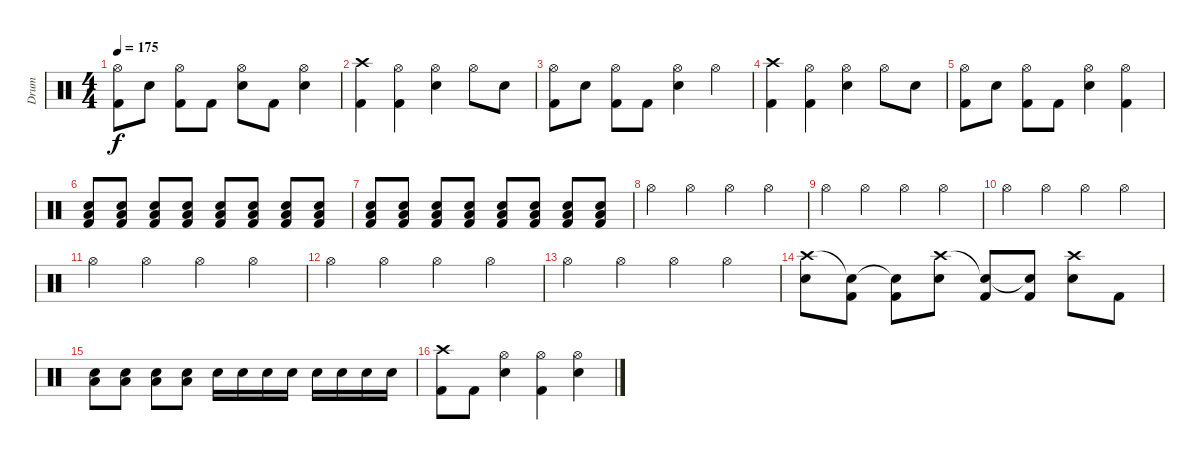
\track ("Drum" "Drum") {instrument percussion}
\staff {score}
\articulation defaults
\ts (4 4)
\tempo 175
\clef neutral
\ks c
("Hi-Hat (open)" "Kick (hit) 2").8{dy f} "Electric Snare (hit)".8 ("Hi-Hat (open)" "Kick (hit) 2").8 "Kick (hit) 2".8 ("Hi-Hat (open)" "Electric Snare (hit)").8 "Kick (hit) 2".8 ("Hi-Hat (open)" "Electric Snare (hit)").4 |
("Crash high (hit)" "Kick (hit) 2").4 ("Hi-Hat (open)" "Kick (hit) 2").4 ("Hi-Hat (open)" "Electric Snare (hit)").4 "Hi-Hat (open)".8 "Electric Snare (hit)".8 |
("Hi-Hat (open)" "Kick (hit) 2").8 "Electric Snare (hit)".8 ("Hi-Hat (open)" "Kick (hit) 2").8 "Kick (hit) 2".8 ("Hi-Hat (open)" "Electric Snare (hit)").4 "Hi-Hat (open)".4 |
("Crash high (hit)" "Kick (hit) 2").4 ("Hi-Hat (open)" "Kick (hit) 2").4 ("Hi-Hat (open)" "Electric Snare (hit)").4 "Hi-Hat (open)".8 "Electric Snare (hit)".8 |
("Hi-Hat (open)" "Kick (hit) 2").8 "Electric Snare (hit)".8 ("Hi-Hat (open)" "Kick (hit) 2").8 "Kick (hit) 2".8 ("Hi-Hat (open)" "Electric Snare (hit)").4 ("Hi-Hat (open)" "Kick (hit) 2").4 |
("Electric Snare (hit)" "Low Floor Tom (hit)" "Kick (hit) 2").8 ("Electric Snare (hit)" "Low Floor Tom (hit)" "Kick (hit) 2").8 ("Electric Snare (hit)" "Low Floor Tom (hit)" "Kick (hit) 2").8 ("Electric Snare (hit)" "Low Floor Tom (hit)" "Kick (hit) 2").8 ("Electric Snare (hit)" "Low Floor Tom (hit)" "Kick (hit) 2").8 ("Electric Snare (hit)" "Low Floor Tom (hit)" "Kick (hit) 2").8 ("Electric Snare (hit)" "Low Floor Tom (hit)" "Kick (hit) 2").8 ("Electric Snare (hit)" "Low Floor Tom (hit)" "Kick (hit) 2").8 |
("Electric Snare (hit)" "Low Floor Tom (hit)" "Kick (hit) 2").8 ("Electric Snare (hit)" "Low Floor Tom (hit)" "Kick (hit) 2").8 ("Electric Snare (hit)" "Low Floor Tom (hit)" "Kick (hit) 2").8 ("Electric Snare (hit)" "Low Floor Tom (hit)" "Kick (hit) 2").8 ("Electric Snare (hit)" "Low Floor Tom (hit)" "Kick (hit) 2").8 ("Electric Snare (hit)" "Low Floor Tom (hit)" "Kick (hit) 2").8 ("Electric Snare (hit)" "Low Floor Tom (hit)" "Kick (hit) 2").8 ("Electric Snare (hit)" "Low Floor Tom (hit)" "Kick (hit) 2").8 |
"Hi-Hat (open)".4 "Hi-Hat (open)".4 "Hi-Hat (open)".4 "Hi-Hat (open)".4 |
"Hi-Hat (open)".4 "Hi-Hat (open)".4 "Hi-Hat (open)".4 "Hi-Hat (open)".4 |
"Hi-Hat (open)".4 "Hi-Hat (open)".4 "Hi-Hat (open)".4 "Hi-Hat (open)".4 |
"Hi-Hat (open)".4 "Hi-Hat (open)".4 "Hi-Hat (open)".4 "Hi-Hat (open)".4 |
"Hi-Hat (open)".4 "Hi-Hat (open)".4 "Hi-Hat (open)".4 "Hi-Hat (open)".4 |
"Hi-Hat (open)".4 "Hi-Hat (open)".4 "Hi-Hat (open)".4 "Hi-Hat (open)".4 |
("Crash high (hit)" "Electric Snare (hit)").8 ("Snare (hit)"{t} "Kick (hit) 2").8 ("Snare (hit)"{t} "Kick (hit) 2").8 ("Crash high (hit)" "Electric Snare (hit)").8 ("Snare (hit)"{t} "Kick (hit) 2").8 ("Snare (hit)"{t} "Kick (hit) 2").8 ("Crash high (hit)" "Electric Snare (hit)").8 "Kick (hit) 2".8 |
("Electric Snare (hit)" "Low Floor Tom (hit)").8 ("Electric Snare (hit)" "Low Floor Tom (hit)").8 ("Electric Snare (hit)" "Low Floor Tom (hit)").8 ("Electric Snare (hit)" "Low Floor Tom (hit)").8 "Electric Snare (hit)".16 "Electric Snare (hit)".16 "Electric Snare (hit)".16 "Electric Snare (hit)".16 "Electric Snare (hit)".16 "Electric Snare (hit)".16 "Electric Snare (hit)".16 "Electric Snare (hit)".16 |
("Crash high (hit)" "Kick (hit) 2").8 "Kick (hit) 2".8 ("Hi-Hat (open)" "Electric Snare (hit)").4 ("Hi-Hat (open)" "Kick (hit) 2").4 ("Hi-Hat (open)" "Electric Snare (hit)").4
